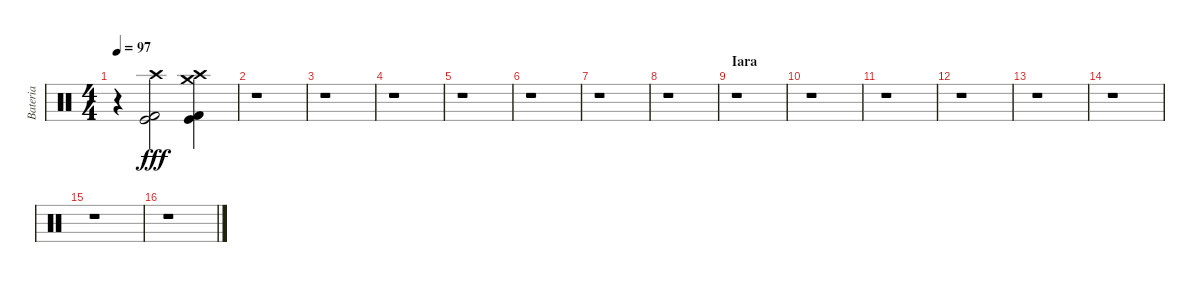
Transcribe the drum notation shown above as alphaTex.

\track ("Bateria" "Bateria") {instrument percussion}
\staff {score}
\articulation defaults
\ts (4 4)
\tempo 97
\clef neutral
\ks c
r.4{dy ff} ("Crash high (hit)" "Kick (hit) 2" "Kick (hit)").2{dy fff} ("Crash high (hit)" "Crash medium (hit)" "Kick (hit) 2" "Kick (hit)").4 |
r.1 |
r.1 |
r.1 |
r.1 |
r.1 |
r.1 |
r.1 |
\section ("" "Iara")
r.1 |
r.1 |
r.1 |
r.1 |
r.1 |
r.1 |
r.1 |
r.1
